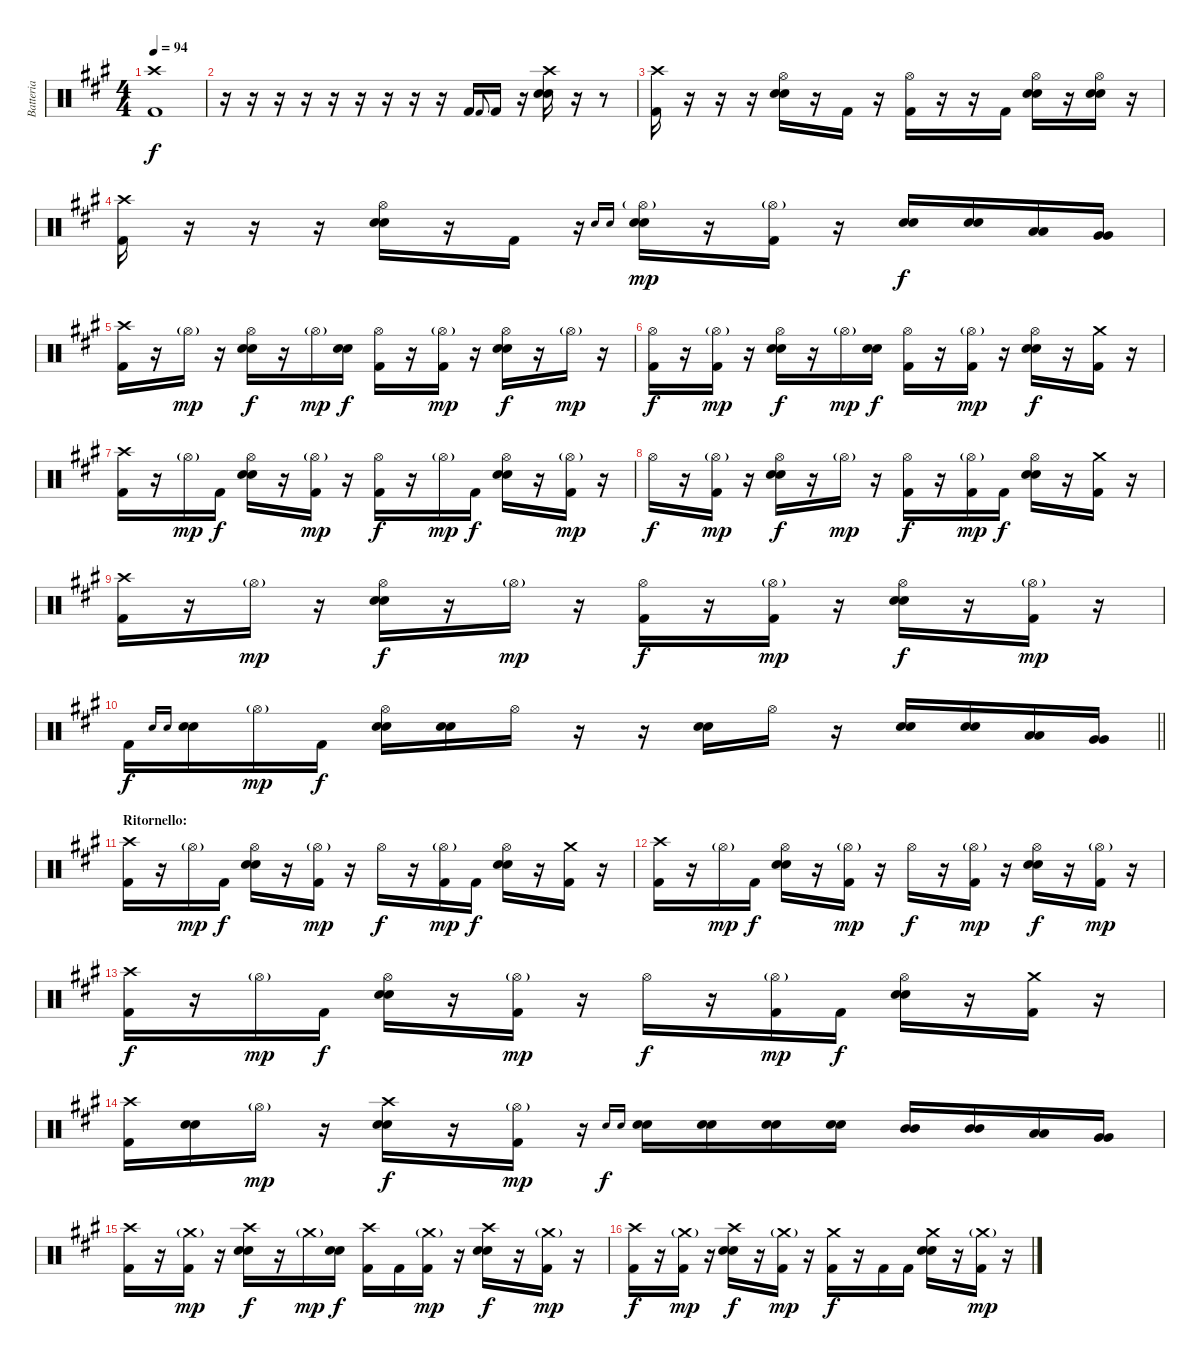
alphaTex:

\track ("Batteria" "Batteria") {instrument percussion}
\staff {score}
\articulation defaults
\ts (4 4)
\tempo 94
\clef neutral
\ks a
("Kick (hit) 2" "Crash high (hit)").1{dy f} |
r.16 r.16 r.16 r.16 r.16 r.16 r.16 r.16 r.16 "Kick (hit) 2".16 "Kick (hit) 2".8{gr onbeat} "Kick (hit) 2".16 r.16 ("Snare (hit) 2" "Snare (hit) 2" "Crash high (hit)").16 r.16 r.8 |
("Kick (hit) 2" "Crash high (hit)").16 r.16 r.16 r.16 ("Snare (hit) 2" "Snare (hit) 2" "Hi-Hat (open)").16 r.16 "Kick (hit) 2".16 r.16 ("Kick (hit) 2" "Hi-Hat (open)").16 r.16 r.16 "Kick (hit) 2".16 ("Snare (hit) 2" "Snare (hit) 2" "Hi-Hat (open)").16 r.16 ("Snare (hit) 2" "Snare (hit) 2" "Hi-Hat (open)").16 r.16 |
("Kick (hit) 2" "Crash high (hit)").16 r.16 r.16 r.16 ("Snare (hit) 2" "Snare (hit) 2" "Hi-Hat (open)").16 r.16 "Kick (hit) 2".16 r.16 "Snare (hit) 2".16{gr onbeat} "Snare (hit) 2".16{gr onbeat} ("Snare (hit) 2" "Snare (hit) 2" "Hi-Hat (open)"{g}).16{dy mp} r.16 ("Kick (hit) 2" "Hi-Hat (open)"{g}).16 r.16 ("Snare (hit) 2" "Snare (hit) 2").16{dy f} ("Snare (hit) 2" "Snare (hit) 2").16 ("Low Tom (hit)" "Low Tom (hit)").16 ("Very Low Tom (hit)" "Very Low Tom (hit)").16 |
("Kick (hit) 2" "Crash high (hit)").16 r.16 "Hi-Hat (open)"{g}.16{dy mp} r.16 ("Snare (hit) 2" "Snare (hit) 2" "Hi-Hat (open)").16{dy f} r.16 "Hi-Hat (open)"{g}.16{dy mp} ("Snare (hit) 2" "Snare (hit) 2").16{dy f} ("Kick (hit) 2" "Hi-Hat (open)").16 r.16 ("Kick (hit) 2" "Hi-Hat (open)"{g}).16{dy mp} r.16 ("Snare (hit) 2" "Snare (hit) 2" "Hi-Hat (open)").16{dy f} r.16 "Hi-Hat (open)"{g}.16{dy mp} r.16 |
("Kick (hit) 2" "Hi-Hat (open)").16{dy f} r.16 ("Kick (hit) 2" "Hi-Hat (open)"{g}).16{dy mp} r.16 ("Snare (hit) 2" "Snare (hit) 2" "Hi-Hat (open)").16{dy f} r.16 "Hi-Hat (open)"{g}.16{dy mp} ("Snare (hit) 2" "Snare (hit) 2").16{dy f} ("Kick (hit) 2" "Hi-Hat (open)").16 r.16 ("Kick (hit) 2" "Hi-Hat (open)"{g}).16{dy mp} r.16 ("Snare (hit) 2" "Snare (hit) 2" "Hi-Hat (open)").16{dy f} r.16 ("Kick (hit) 2" "Crash medium (hit)").16 r.16 |
("Kick (hit) 2" "Crash high (hit)").16 r.16 "Hi-Hat (open)"{g}.16{dy mp} "Kick (hit) 2".16{dy f} ("Snare (hit) 2" "Snare (hit) 2" "Hi-Hat (open)").16 r.16 ("Kick (hit) 2" "Hi-Hat (open)"{g}).16{dy mp} r.16 ("Kick (hit) 2" "Hi-Hat (open)").16{dy f} r.16 "Hi-Hat (open)"{g}.16{dy mp} "Kick (hit) 2".16{dy f} ("Snare (hit) 2" "Snare (hit) 2" "Hi-Hat (open)").16 r.16 ("Kick (hit) 2" "Hi-Hat (open)"{g}).16{dy mp} r.16 |
"Hi-Hat (open)".16{dy f} r.16 ("Kick (hit) 2" "Hi-Hat (open)"{g}).16{dy mp} r.16 ("Snare (hit) 2" "Snare (hit) 2" "Hi-Hat (open)").16{dy f} r.16 "Hi-Hat (open)"{g}.16{dy mp} r.16 ("Kick (hit) 2" "Hi-Hat (open)").16{dy f} r.16 ("Kick (hit) 2" "Hi-Hat (open)"{g}).16{dy mp} "Kick (hit) 2".16{dy f} ("Snare (hit) 2" "Snare (hit) 2" "Hi-Hat (open)").16 r.16 ("Kick (hit) 2" "Crash medium (hit)").16 r.16 |
("Kick (hit) 2" "Crash high (hit)").16 r.16 "Hi-Hat (open)"{g}.16{dy mp} r.16 ("Snare (hit) 2" "Snare (hit) 2" "Hi-Hat (open)").16{dy f} r.16 "Hi-Hat (open)"{g}.16{dy mp} r.16 ("Kick (hit) 2" "Hi-Hat (open)").16{dy f} r.16 ("Kick (hit) 2" "Hi-Hat (open)"{g}).16{dy mp} r.16 ("Snare (hit) 2" "Snare (hit) 2" "Hi-Hat (open)").16{dy f} r.16 ("Kick (hit) 2" "Hi-Hat (open)"{g}).16{dy mp} r.16 |
\barLineRight lightlight "Kick (hit) 2".16{dy f} "Snare (hit) 2".16{gr onbeat} "Snare (hit) 2".16{gr onbeat}
("Snare (hit) 2" "Snare (hit) 2").16 "Hi-Hat (open)"{g}.16{dy mp} "Kick (hit) 2".16{dy f} ("Snare (hit) 2" "Snare (hit) 2" "Hi-Hat (open)").16 ("Snare (hit) 2" "Snare (hit) 2").16 "Hi-Hat (open)".16 r.16 r.16 ("Snare (hit) 2" "Snare (hit) 2").16 "Hi-Hat (open)".16 r.16 ("Snare (hit) 2" "Snare (hit) 2").16 ("Snare (hit) 2" "Snare (hit) 2").16 ("Low Tom (hit)" "Low Tom (hit)").16 ("Very Low Tom (hit)" "Very Low Tom (hit)").16 |
\section ("" "Ritornello:")
("Kick (hit) 2" "Crash high (hit)").16 r.16 "Hi-Hat (open)"{g}.16{dy mp} "Kick (hit) 2".16{dy f} ("Snare (hit) 2" "Snare (hit) 2" "Hi-Hat (open)").16 r.16 ("Kick (hit) 2" "Hi-Hat (open)"{g}).16{dy mp} r.16 "Hi-Hat (open)".16{dy f} r.16 ("Kick (hit) 2" "Hi-Hat (open)"{g}).16{dy mp} "Kick (hit) 2".16{dy f} ("Snare (hit) 2" "Snare (hit) 2" "Hi-Hat (open)").16 r.16 ("Kick (hit) 2" "Crash medium (hit)").16 r.16 |
("Kick (hit) 2" "Crash high (hit)").16 r.16 "Hi-Hat (open)"{g}.16{dy mp} "Kick (hit) 2".16{dy f} ("Snare (hit) 2" "Snare (hit) 2" "Hi-Hat (open)").16 r.16 ("Kick (hit) 2" "Hi-Hat (open)"{g}).16{dy mp} r.16 "Hi-Hat (open)".16{dy f} r.16 ("Kick (hit) 2" "Hi-Hat (open)"{g}).16{dy mp} r.16 ("Snare (hit) 2" "Snare (hit) 2" "Hi-Hat (open)").16{dy f} r.16 ("Kick (hit) 2" "Hi-Hat (open)"{g}).16{dy mp} r.16 |
("Kick (hit) 2" "Crash high (hit)").16{dy f} r.16 "Hi-Hat (open)"{g}.16{dy mp} "Kick (hit) 2".16{dy f} ("Snare (hit) 2" "Snare (hit) 2" "Hi-Hat (open)").16 r.16 ("Kick (hit) 2" "Hi-Hat (open)"{g}).16{dy mp} r.16 "Hi-Hat (open)".16{dy f} r.16 ("Kick (hit) 2" "Hi-Hat (open)"{g}).16{dy mp} "Kick (hit) 2".16{dy f} ("Snare (hit) 2" "Snare (hit) 2" "Hi-Hat (open)").16 r.16 ("Kick (hit) 2" "Crash medium (hit)").16 r.16 |
("Kick (hit) 2" "Crash high (hit)").16 ("Snare (hit) 2" "Snare (hit) 2").16 "Hi-Hat (open)"{g}.16{dy mp} r.16 ("Snare (hit) 2" "Snare (hit) 2" "Crash high (hit)").16{dy f} r.16 ("Kick (hit) 2" "Hi-Hat (open)"{g}).16{dy mp} r.16 "Snare (hit) 2".16{gr onbeat dy f} "Snare (hit) 2".16{gr onbeat} ("Snare (hit) 2" "Snare (hit) 2").16 ("Snare (hit) 2" "Snare (hit) 2").16 ("Snare (hit) 2" "Snare (hit) 2").16 ("Snare (hit) 2" "Snare (hit) 2").16 ("Mid Tom (hit)" "Mid Tom (hit)").16 ("Mid Tom (hit)" "Mid Tom (hit)").16 ("Low Tom (hit)" "Low Tom (hit)").16 ("Very Low Tom (hit)" "Very Low Tom (hit)").16 |
("Kick (hit) 2" "Crash high (hit)").16 r.16 ("Kick (hit) 2" "Crash medium (hit)"{g}).16{dy mp} r.16 ("Snare (hit) 2" "Snare (hit) 2" "Crash high (hit)").16{dy f} r.16 "Crash medium (hit)"{g}.16{dy mp} ("Snare (hit) 2" "Snare (hit) 2").16{dy f} ("Kick (hit) 2" "Crash high (hit)").16 "Kick (hit) 2".16 ("Kick (hit) 2" "Crash medium (hit)"{g}).16{dy mp} r.16 ("Snare (hit) 2" "Snare (hit) 2" "Crash high (hit)").16{dy f} r.16 ("Kick (hit) 2" "Crash medium (hit)"{g}).16{dy mp} r.16 |
("Kick (hit) 2" "Crash high (hit)").16{dy f} r.16 ("Kick (hit) 2" "Crash medium (hit)"{g}).16{dy mp} r.16 ("Snare (hit) 2" "Snare (hit) 2" "Crash high (hit)").16{dy f} r.16 ("Kick (hit) 2" "Crash medium (hit)"{g}).16{dy mp} r.16 ("Kick (hit) 2" "Crash medium (hit)").16{dy f} r.16 "Kick (hit) 2".16 "Kick (hit) 2".16 ("Snare (hit) 2" "Snare (hit) 2" "Crash medium (hit)").16 r.16 ("Kick (hit) 2" "Crash medium (hit)"{g}).16{dy mp} r.16
